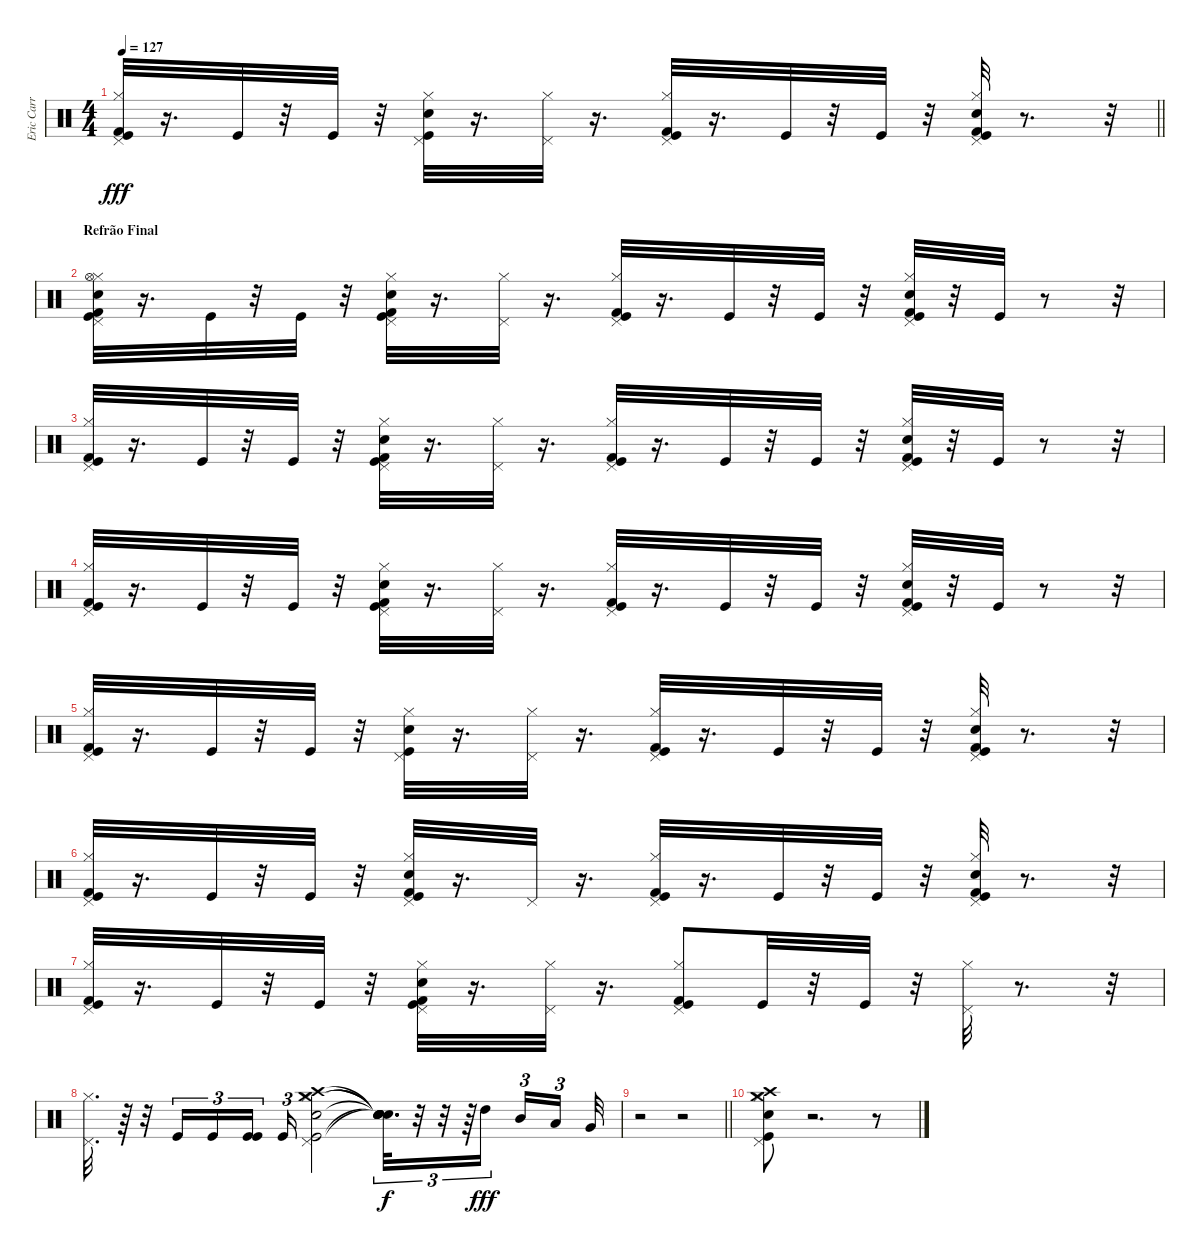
\track ("Eric Carr - Bateria" "Eric Carr ") {instrument percussion}
\staff {score}
\articulation defaults
\ts (4 4)
\tempo 127
\clef neutral
\barLineRight lightlight
\ks c
("Kick (hit) 2" "Hi-Hat (closed)" "Kick (hit)" "Pedal Hi-Hat (hit)").32{dy fff} r.16{d} "Kick (hit)".32 r.32 "Kick (hit)".32 r.32 ("Kick (hit)" "Snare (hit) 2" "Pedal Hi-Hat (hit)" "Hi-Hat (closed)").32 r.16{d} ("Pedal Hi-Hat (hit)" "Hi-Hat (closed)").32 r.16{d} ("Kick (hit) 2" "Kick (hit)" "Hi-Hat (closed)" "Pedal Hi-Hat (hit)").32 r.16{d} "Kick (hit)".32 r.32 "Kick (hit)".32 r.32 ("Pedal Hi-Hat (hit)" "Kick (hit) 2" "Kick (hit)" "Hi-Hat (closed)" "Snare (hit) 2").32 r.8{d} r.32 |
\section ("" "Refrão Final")
("Hi-Hat (closed)" "Kick (hit) 2" "Snare (hit) 2" "Kick (hit)" "Pedal Hi-Hat (hit)" "Hi-Hat (open)").32 r.16{d} "Kick (hit)".32 r.32 "Kick (hit)".32 r.32 ("Kick (hit) 2" "Hi-Hat (closed)" "Pedal Hi-Hat (hit)" "Kick (hit)" "Snare (hit) 2").32 r.16{d} ("Hi-Hat (closed)" "Pedal Hi-Hat (hit)").32 r.16{d} ("Kick (hit)" "Hi-Hat (closed)" "Pedal Hi-Hat (hit)" "Kick (hit) 2").32 r.16{d} "Kick (hit)".32 r.32 "Kick (hit)".32 r.32 ("Hi-Hat (closed)" "Snare (hit) 2" "Kick (hit)" "Kick (hit) 2" "Pedal Hi-Hat (hit)").32 r.32 "Kick (hit)".32 r.8 r.32 |
("Kick (hit) 2" "Kick (hit)" "Hi-Hat (closed)" "Pedal Hi-Hat (hit)").32 r.16{d} "Kick (hit)".32 r.32 "Kick (hit)".32 r.32 ("Pedal Hi-Hat (hit)" "Snare (hit) 2" "Kick (hit) 2" "Kick (hit)" "Hi-Hat (closed)").32 r.16{d} ("Pedal Hi-Hat (hit)" "Hi-Hat (closed)").32 r.16{d} ("Kick (hit) 2" "Kick (hit)" "Pedal Hi-Hat (hit)" "Hi-Hat (closed)").32 r.16{d} "Kick (hit)".32 r.32 "Kick (hit)".32 r.32 ("Kick (hit)" "Snare (hit) 2" "Kick (hit) 2" "Hi-Hat (closed)" "Pedal Hi-Hat (hit)").32 r.32 "Kick (hit)".32 r.8 r.32 |
("Kick (hit) 2" "Pedal Hi-Hat (hit)" "Kick (hit)" "Hi-Hat (closed)").32 r.16{d} "Kick (hit)".32 r.32 "Kick (hit)".32 r.32 ("Pedal Hi-Hat (hit)" "Snare (hit) 2" "Kick (hit) 2" "Hi-Hat (closed)" "Kick (hit)").32 r.16{d} ("Pedal Hi-Hat (hit)" "Hi-Hat (closed)").32 r.16{d} ("Hi-Hat (closed)" "Pedal Hi-Hat (hit)" "Kick (hit)" "Kick (hit) 2").32 r.16{d} "Kick (hit)".32 r.32 "Kick (hit)".32 r.32 ("Snare (hit) 2" "Kick (hit)" "Kick (hit) 2" "Pedal Hi-Hat (hit)" "Hi-Hat (closed)").32 r.32 "Kick (hit)".32 r.8 r.32 |
("Kick (hit) 2" "Hi-Hat (closed)" "Kick (hit)" "Pedal Hi-Hat (hit)").32 r.16{d} "Kick (hit)".32 r.32 "Kick (hit)".32 r.32 ("Kick (hit)" "Snare (hit) 2" "Pedal Hi-Hat (hit)" "Hi-Hat (closed)").32 r.16{d} ("Pedal Hi-Hat (hit)" "Hi-Hat (closed)").32 r.16{d} ("Kick (hit) 2" "Kick (hit)" "Hi-Hat (closed)" "Pedal Hi-Hat (hit)").32 r.16{d} "Kick (hit)".32 r.32 "Kick (hit)".32 r.32 ("Pedal Hi-Hat (hit)" "Kick (hit) 2" "Kick (hit)" "Hi-Hat (closed)" "Snare (hit) 2").32 r.8{d} r.32 |
("Hi-Hat (closed)" "Kick (hit) 2" "Pedal Hi-Hat (hit)" "Kick (hit)").32 r.16{d} "Kick (hit)".32 r.32 "Kick (hit)".32 r.32 ("Kick (hit) 2" "Hi-Hat (closed)" "Kick (hit)" "Snare (hit) 2" "Pedal Hi-Hat (hit)").32 r.16{d} "Pedal Hi-Hat (hit)".32 r.16{d} ("Hi-Hat (closed)" "Pedal Hi-Hat (hit)" "Kick (hit)" "Kick (hit) 2").32 r.16{d} "Kick (hit)".32 r.32 "Kick (hit)".32 r.32 ("Kick (hit) 2" "Kick (hit)" "Hi-Hat (closed)" "Snare (hit) 2" "Pedal Hi-Hat (hit)").32 r.8{d} r.32 |
("Kick (hit) 2" "Pedal Hi-Hat (hit)" "Hi-Hat (closed)" "Kick (hit)").32 r.16{d} "Kick (hit)".32 r.32 "Kick (hit)".32 r.32 ("Pedal Hi-Hat (hit)" "Hi-Hat (closed)" "Kick (hit)" "Kick (hit) 2" "Snare (hit) 2").32 r.16{d} ("Hi-Hat (closed)" "Pedal Hi-Hat (hit)").32 r.16{d} ("Hi-Hat (closed)" "Pedal Hi-Hat (hit)" "Kick (hit)" "Kick (hit) 2").8 "Kick (hit)".32 r.32 "Kick (hit)".32 r.32 ("Pedal Hi-Hat (hit)" "Hi-Hat (closed)").32 r.8{d} r.32 |
("Hi-Hat (closed)" "Pedal Hi-Hat (hit)").32{d} r.64 r.32 "Kick (hit)".16{tu (3 2)} "Kick (hit)".16{tu (3 2)} ("Kick (hit)" "Kick (hit)").16{tu (3 2) beam splitsecondary} "Kick (hit)".16{tu (3 2)} ("Crash medium (hit)" "Crash high (hit)" "Hi-Hat (closed)" "Pedal Hi-Hat (hit)" "Snare (hit) 2" "Kick (hit)").2 ("Snare (hit)"{t} "Snare (hit)"{t} "Snare (hit)"{t} "Snare (hit)"{t} "Snare (hit)"{t} "Snare (hit)"{t}).32{d tu (3 2) dy f} r.32{tu (3 2)} r.32{tu (3 2)} r.64{tu (3 2)} "High Tom (hit)".16{tu (3 2) dy fff} "Mid Tom (hit)".16{tu (3 2)} "Low Tom (hit)".16{tu (3 2) beam splitsecondary} "Very Low Tom (hit)".32 |
\barLineRight lightlight
r.2 r.2 |
("Crash medium (hit)" "Crash high (hit)" "Hi-Hat (closed)" "Pedal Hi-Hat (hit)" "Snare (hit) 2" "Kick (hit)").8 r.2{d} r.8
